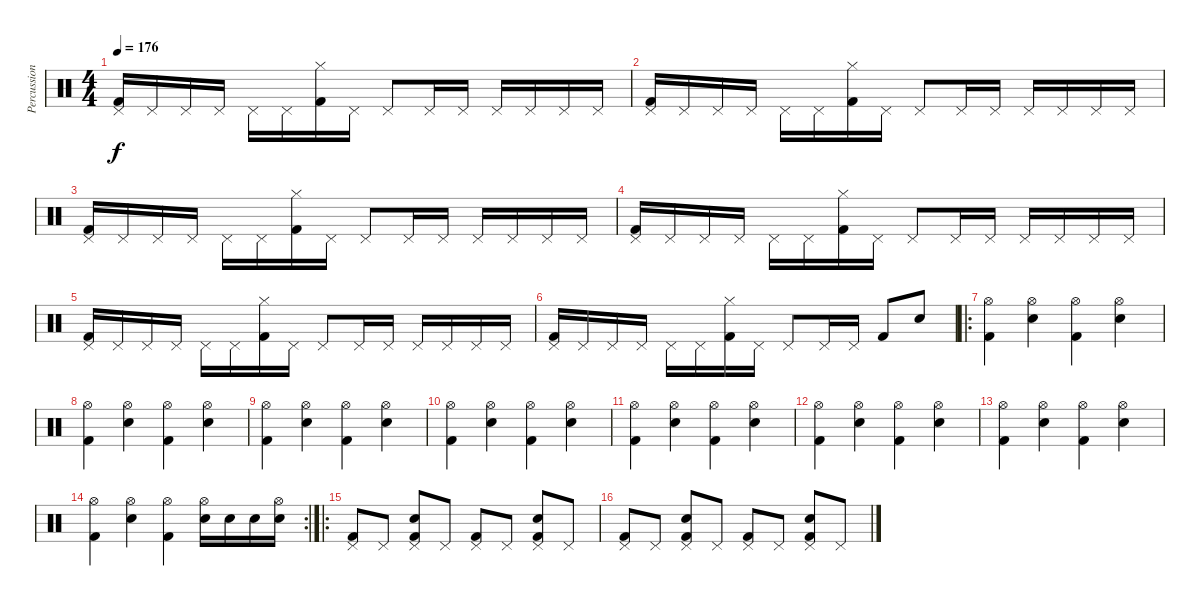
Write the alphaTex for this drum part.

\track ("Percussion" "Percussion") {instrument percussion}
\staff {score}
\articulation defaults
\ts (4 4)
\tempo 176
\clef neutral
\ks c
("Pedal Hi-Hat (hit)" "Kick (hit) 2").16{dy f} "Pedal Hi-Hat (hit)".16 "Pedal Hi-Hat (hit)".16 "Pedal Hi-Hat (hit)".16 "Pedal Hi-Hat (hit)".16 "Pedal Hi-Hat (hit)".16 ("Hi-Hat (closed)" "Kick (hit) 2").16 "Pedal Hi-Hat (hit)".16 "Pedal Hi-Hat (hit)".8 "Pedal Hi-Hat (hit)".16 "Pedal Hi-Hat (hit)".16 "Pedal Hi-Hat (hit)".16 "Pedal Hi-Hat (hit)".16 "Pedal Hi-Hat (hit)".16 "Pedal Hi-Hat (hit)".16 |
("Pedal Hi-Hat (hit)" "Kick (hit) 2").16 "Pedal Hi-Hat (hit)".16 "Pedal Hi-Hat (hit)".16 "Pedal Hi-Hat (hit)".16 "Pedal Hi-Hat (hit)".16 "Pedal Hi-Hat (hit)".16 ("Hi-Hat (closed)" "Kick (hit) 2").16 "Pedal Hi-Hat (hit)".16 "Pedal Hi-Hat (hit)".8 "Pedal Hi-Hat (hit)".16 "Pedal Hi-Hat (hit)".16 "Pedal Hi-Hat (hit)".16 "Pedal Hi-Hat (hit)".16 "Pedal Hi-Hat (hit)".16 "Pedal Hi-Hat (hit)".16 |
("Pedal Hi-Hat (hit)" "Kick (hit) 2").16 "Pedal Hi-Hat (hit)".16 "Pedal Hi-Hat (hit)".16 "Pedal Hi-Hat (hit)".16 "Pedal Hi-Hat (hit)".16 "Pedal Hi-Hat (hit)".16 ("Hi-Hat (closed)" "Kick (hit) 2").16 "Pedal Hi-Hat (hit)".16 "Pedal Hi-Hat (hit)".8 "Pedal Hi-Hat (hit)".16 "Pedal Hi-Hat (hit)".16 "Pedal Hi-Hat (hit)".16 "Pedal Hi-Hat (hit)".16 "Pedal Hi-Hat (hit)".16 "Pedal Hi-Hat (hit)".16 |
("Pedal Hi-Hat (hit)" "Kick (hit) 2").16 "Pedal Hi-Hat (hit)".16 "Pedal Hi-Hat (hit)".16 "Pedal Hi-Hat (hit)".16 "Pedal Hi-Hat (hit)".16 "Pedal Hi-Hat (hit)".16 ("Hi-Hat (closed)" "Kick (hit) 2").16 "Pedal Hi-Hat (hit)".16 "Pedal Hi-Hat (hit)".8 "Pedal Hi-Hat (hit)".16 "Pedal Hi-Hat (hit)".16 "Pedal Hi-Hat (hit)".16 "Pedal Hi-Hat (hit)".16 "Pedal Hi-Hat (hit)".16 "Pedal Hi-Hat (hit)".16 |
("Pedal Hi-Hat (hit)" "Kick (hit) 2").16 "Pedal Hi-Hat (hit)".16 "Pedal Hi-Hat (hit)".16 "Pedal Hi-Hat (hit)".16 "Pedal Hi-Hat (hit)".16 "Pedal Hi-Hat (hit)".16 ("Hi-Hat (closed)" "Kick (hit) 2").16 "Pedal Hi-Hat (hit)".16 "Pedal Hi-Hat (hit)".8 "Pedal Hi-Hat (hit)".16 "Pedal Hi-Hat (hit)".16 "Pedal Hi-Hat (hit)".16 "Pedal Hi-Hat (hit)".16 "Pedal Hi-Hat (hit)".16 "Pedal Hi-Hat (hit)".16 |
("Pedal Hi-Hat (hit)" "Kick (hit) 2").16 "Pedal Hi-Hat (hit)".16 "Pedal Hi-Hat (hit)".16 "Pedal Hi-Hat (hit)".16 "Pedal Hi-Hat (hit)".16 "Pedal Hi-Hat (hit)".16 ("Hi-Hat (closed)" "Kick (hit) 2").16 "Pedal Hi-Hat (hit)".16 "Pedal Hi-Hat (hit)".8 "Pedal Hi-Hat (hit)".16 "Pedal Hi-Hat (hit)".16 "Kick (hit) 2".8 "Snare (hit) 2".8 |
\ro
("Hi-Hat (open)" "Kick (hit) 2").4 ("Hi-Hat (open)" "Snare (hit) 2").4 ("Hi-Hat (open)" "Kick (hit) 2").4 ("Hi-Hat (open)" "Snare (hit) 2").4 |
("Hi-Hat (open)" "Kick (hit) 2").4 ("Hi-Hat (open)" "Snare (hit) 2").4 ("Hi-Hat (open)" "Kick (hit) 2").4 ("Hi-Hat (open)" "Snare (hit) 2").4 |
("Hi-Hat (open)" "Kick (hit) 2").4 ("Hi-Hat (open)" "Snare (hit) 2").4 ("Hi-Hat (open)" "Kick (hit) 2").4 ("Hi-Hat (open)" "Snare (hit) 2").4 |
("Hi-Hat (open)" "Kick (hit) 2").4 ("Hi-Hat (open)" "Snare (hit) 2").4 ("Hi-Hat (open)" "Kick (hit) 2").4 ("Hi-Hat (open)" "Snare (hit) 2").4 |
("Hi-Hat (open)" "Kick (hit) 2").4 ("Hi-Hat (open)" "Snare (hit) 2").4 ("Hi-Hat (open)" "Kick (hit) 2").4 ("Hi-Hat (open)" "Snare (hit) 2").4 |
("Hi-Hat (open)" "Kick (hit) 2").4 ("Hi-Hat (open)" "Snare (hit) 2").4 ("Hi-Hat (open)" "Kick (hit) 2").4 ("Hi-Hat (open)" "Snare (hit) 2").4 |
("Hi-Hat (open)" "Kick (hit) 2").4 ("Hi-Hat (open)" "Snare (hit) 2").4 ("Hi-Hat (open)" "Kick (hit) 2").4 ("Hi-Hat (open)" "Snare (hit) 2").4 |
\rc 2
("Hi-Hat (open)" "Kick (hit) 2").4 ("Hi-Hat (open)" "Snare (hit) 2").4 ("Hi-Hat (open)" "Kick (hit) 2").4 ("Hi-Hat (open)" "Snare (hit) 2").16 "Snare (hit) 2".16 "Snare (hit) 2".16 ("Hi-Hat (open)" "Snare (hit) 2").16 |
\ro
("Pedal Hi-Hat (hit)" "Kick (hit) 2").8 "Pedal Hi-Hat (hit)".8 ("Pedal Hi-Hat (hit)" "Snare (hit) 2" "Kick (hit) 2").8 "Pedal Hi-Hat (hit)".8 ("Pedal Hi-Hat (hit)" "Kick (hit) 2").8 "Pedal Hi-Hat (hit)".8 ("Pedal Hi-Hat (hit)" "Snare (hit) 2" "Kick (hit) 2").8 "Pedal Hi-Hat (hit)".8 |
("Pedal Hi-Hat (hit)" "Kick (hit) 2").8 "Pedal Hi-Hat (hit)".8 ("Pedal Hi-Hat (hit)" "Snare (hit) 2" "Kick (hit) 2").8 "Pedal Hi-Hat (hit)".8 ("Pedal Hi-Hat (hit)" "Kick (hit) 2").8 "Pedal Hi-Hat (hit)".8 ("Pedal Hi-Hat (hit)" "Snare (hit) 2" "Kick (hit) 2").8 "Pedal Hi-Hat (hit)".8
